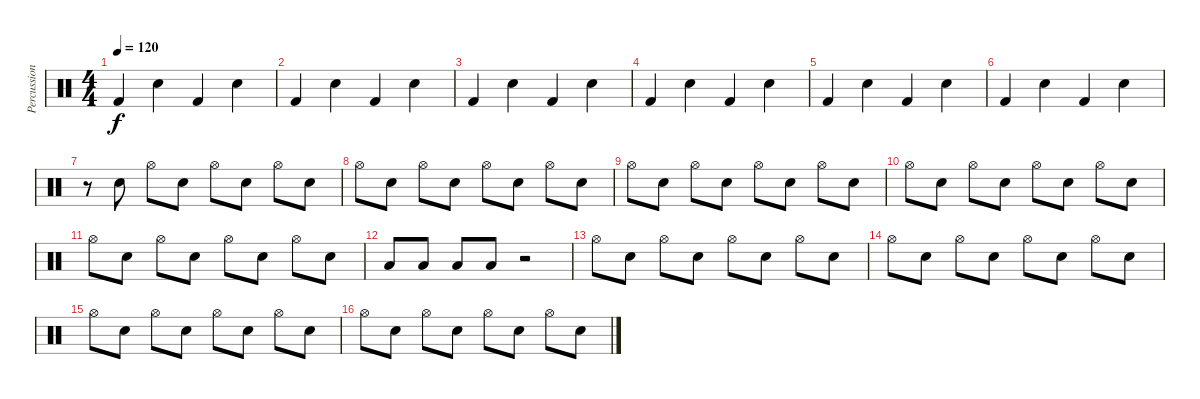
\track ("Percussions" "Percussion") {instrument percussion}
\staff {score}
\articulation defaults
\ts (4 4)
\tempo 120
\clef neutral
\ks c "Kick (hit) 2".4{dy f} "Electric Snare (hit)".4 "Kick (hit) 2".4 "Electric Snare (hit)".4
|
"Kick (hit) 2".4 "Electric Snare (hit)".4 "Kick (hit) 2".4 "Electric Snare (hit)".4 |
"Kick (hit) 2".4 "Electric Snare (hit)".4 "Kick (hit) 2".4 "Electric Snare (hit)".4 |
"Kick (hit) 2".4 "Electric Snare (hit)".4 "Kick (hit) 2".4 "Electric Snare (hit)".4 |
"Kick (hit) 2".4 "Electric Snare (hit)".4 "Kick (hit) 2".4 "Electric Snare (hit)".4 |
"Kick (hit) 2".4 "Electric Snare (hit)".4 "Kick (hit) 2".4 "Electric Snare (hit)".4 |
r.8 "Electric Snare (hit)".8 "Hi-Hat (open)".8 "Electric Snare (hit)".8 "Hi-Hat (open)".8 "Electric Snare (hit)".8 "Hi-Hat (open)".8 "Electric Snare (hit)".8 |
"Hi-Hat (open)".8 "Electric Snare (hit)".8 "Hi-Hat (open)".8 "Electric Snare (hit)".8 "Hi-Hat (open)".8 "Electric Snare (hit)".8 "Hi-Hat (open)".8 "Electric Snare (hit)".8 |
"Hi-Hat (open)".8 "Electric Snare (hit)".8 "Hi-Hat (open)".8 "Electric Snare (hit)".8 "Hi-Hat (open)".8 "Electric Snare (hit)".8 "Hi-Hat (open)".8 "Electric Snare (hit)".8 |
"Hi-Hat (open)".8 "Electric Snare (hit)".8 "Hi-Hat (open)".8 "Electric Snare (hit)".8 "Hi-Hat (open)".8 "Electric Snare (hit)".8 "Hi-Hat (open)".8 "Electric Snare (hit)".8 |
"Hi-Hat (open)".8 "Electric Snare (hit)".8 "Hi-Hat (open)".8 "Electric Snare (hit)".8 "Hi-Hat (open)".8 "Electric Snare (hit)".8 "Hi-Hat (open)".8 "Electric Snare (hit)".8 |
"Low Floor Tom (hit)".8 "Low Floor Tom (hit)".8 "Low Floor Tom (hit)".8 "Low Floor Tom (hit)".8 r.2 |
"Hi-Hat (open)".8 "Electric Snare (hit)".8 "Hi-Hat (open)".8 "Electric Snare (hit)".8 "Hi-Hat (open)".8 "Electric Snare (hit)".8 "Hi-Hat (open)".8 "Electric Snare (hit)".8 |
"Hi-Hat (open)".8 "Electric Snare (hit)".8 "Hi-Hat (open)".8 "Electric Snare (hit)".8 "Hi-Hat (open)".8 "Electric Snare (hit)".8 "Hi-Hat (open)".8 "Electric Snare (hit)".8 |
"Hi-Hat (open)".8 "Electric Snare (hit)".8 "Hi-Hat (open)".8 "Electric Snare (hit)".8 "Hi-Hat (open)".8 "Electric Snare (hit)".8 "Hi-Hat (open)".8 "Electric Snare (hit)".8 |
"Hi-Hat (open)".8 "Electric Snare (hit)".8 "Hi-Hat (open)".8 "Electric Snare (hit)".8 "Hi-Hat (open)".8 "Electric Snare (hit)".8 "Hi-Hat (open)".8 "Electric Snare (hit)".8
